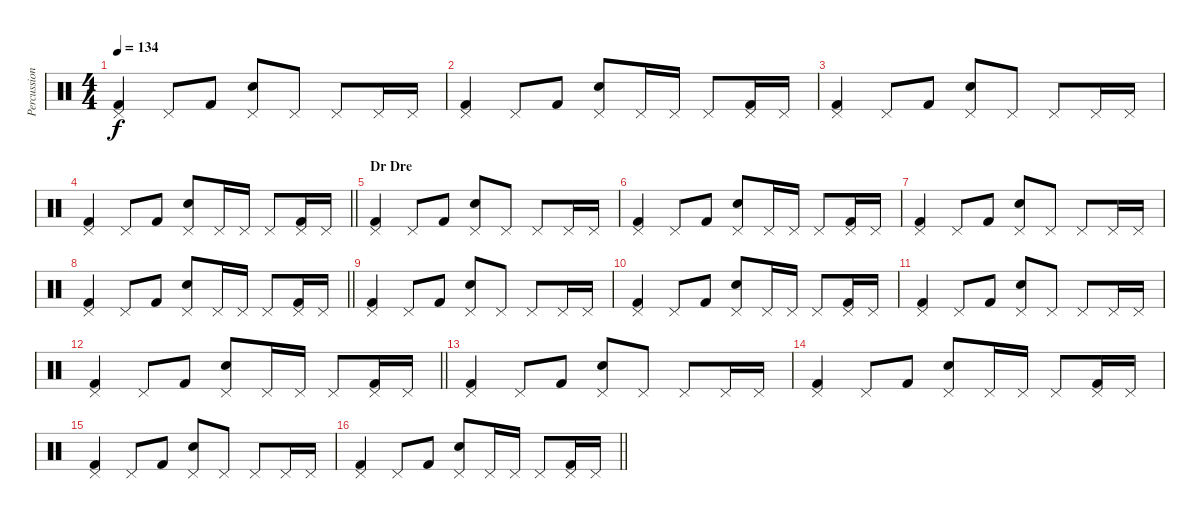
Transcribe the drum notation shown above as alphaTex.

\track ("Percussion" "Percussion") {instrument percussion}
\staff {score}
\articulation defaults
\ts (4 4)
\tempo 134
\clef neutral
\ks c
("Pedal Hi-Hat (hit)" "Kick (hit) 2").4{dy f} "Pedal Hi-Hat (hit)".8 "Kick (hit) 2".8 ("Pedal Hi-Hat (hit)" "Electric Snare (hit)").8 "Pedal Hi-Hat (hit)".8 "Pedal Hi-Hat (hit)".8 "Pedal Hi-Hat (hit)".16 "Pedal Hi-Hat (hit)".16 |
("Pedal Hi-Hat (hit)" "Kick (hit) 2").4 "Pedal Hi-Hat (hit)".8 "Kick (hit) 2".8 ("Pedal Hi-Hat (hit)" "Electric Snare (hit)").8 "Pedal Hi-Hat (hit)".16 "Pedal Hi-Hat (hit)".16 "Pedal Hi-Hat (hit)".8 ("Pedal Hi-Hat (hit)" "Kick (hit) 2").16 "Pedal Hi-Hat (hit)".16 |
("Pedal Hi-Hat (hit)" "Kick (hit) 2").4 "Pedal Hi-Hat (hit)".8 "Kick (hit) 2".8 ("Pedal Hi-Hat (hit)" "Electric Snare (hit)").8 "Pedal Hi-Hat (hit)".8 "Pedal Hi-Hat (hit)".8 "Pedal Hi-Hat (hit)".16 "Pedal Hi-Hat (hit)".16 |
\barLineRight lightlight
("Pedal Hi-Hat (hit)" "Kick (hit) 2").4 "Pedal Hi-Hat (hit)".8 "Kick (hit) 2".8 ("Pedal Hi-Hat (hit)" "Electric Snare (hit)").8 "Pedal Hi-Hat (hit)".16 "Pedal Hi-Hat (hit)".16 "Pedal Hi-Hat (hit)".8 ("Pedal Hi-Hat (hit)" "Kick (hit) 2").16 "Pedal Hi-Hat (hit)".16 |
\section ("" "Dr Dre")
("Pedal Hi-Hat (hit)" "Kick (hit) 2").4 "Pedal Hi-Hat (hit)".8 "Kick (hit) 2".8 ("Pedal Hi-Hat (hit)" "Electric Snare (hit)").8 "Pedal Hi-Hat (hit)".8 "Pedal Hi-Hat (hit)".8 "Pedal Hi-Hat (hit)".16 "Pedal Hi-Hat (hit)".16 |
("Pedal Hi-Hat (hit)" "Kick (hit) 2").4 "Pedal Hi-Hat (hit)".8 "Kick (hit) 2".8 ("Pedal Hi-Hat (hit)" "Electric Snare (hit)").8 "Pedal Hi-Hat (hit)".16 "Pedal Hi-Hat (hit)".16 "Pedal Hi-Hat (hit)".8 ("Pedal Hi-Hat (hit)" "Kick (hit) 2").16 "Pedal Hi-Hat (hit)".16 |
("Pedal Hi-Hat (hit)" "Kick (hit) 2").4 "Pedal Hi-Hat (hit)".8 "Kick (hit) 2".8 ("Pedal Hi-Hat (hit)" "Electric Snare (hit)").8 "Pedal Hi-Hat (hit)".8 "Pedal Hi-Hat (hit)".8 "Pedal Hi-Hat (hit)".16 "Pedal Hi-Hat (hit)".16 |
\barLineRight lightlight
("Pedal Hi-Hat (hit)" "Kick (hit) 2").4 "Pedal Hi-Hat (hit)".8 "Kick (hit) 2".8 ("Pedal Hi-Hat (hit)" "Electric Snare (hit)").8 "Pedal Hi-Hat (hit)".16 "Pedal Hi-Hat (hit)".16 "Pedal Hi-Hat (hit)".8 ("Pedal Hi-Hat (hit)" "Kick (hit) 2").16 "Pedal Hi-Hat (hit)".16 |
("Pedal Hi-Hat (hit)" "Kick (hit) 2").4 "Pedal Hi-Hat (hit)".8 "Kick (hit) 2".8 ("Pedal Hi-Hat (hit)" "Electric Snare (hit)").8 "Pedal Hi-Hat (hit)".8 "Pedal Hi-Hat (hit)".8 "Pedal Hi-Hat (hit)".16 "Pedal Hi-Hat (hit)".16 |
("Pedal Hi-Hat (hit)" "Kick (hit) 2").4 "Pedal Hi-Hat (hit)".8 "Kick (hit) 2".8 ("Pedal Hi-Hat (hit)" "Electric Snare (hit)").8 "Pedal Hi-Hat (hit)".16 "Pedal Hi-Hat (hit)".16 "Pedal Hi-Hat (hit)".8 ("Pedal Hi-Hat (hit)" "Kick (hit) 2").16 "Pedal Hi-Hat (hit)".16 |
("Pedal Hi-Hat (hit)" "Kick (hit) 2").4 "Pedal Hi-Hat (hit)".8 "Kick (hit) 2".8 ("Pedal Hi-Hat (hit)" "Electric Snare (hit)").8 "Pedal Hi-Hat (hit)".8 "Pedal Hi-Hat (hit)".8 "Pedal Hi-Hat (hit)".16 "Pedal Hi-Hat (hit)".16 |
\barLineRight lightlight
("Pedal Hi-Hat (hit)" "Kick (hit) 2").4 "Pedal Hi-Hat (hit)".8 "Kick (hit) 2".8 ("Pedal Hi-Hat (hit)" "Electric Snare (hit)").8 "Pedal Hi-Hat (hit)".16 "Pedal Hi-Hat (hit)".16 "Pedal Hi-Hat (hit)".8 ("Pedal Hi-Hat (hit)" "Kick (hit) 2").16 "Pedal Hi-Hat (hit)".16 |
("Pedal Hi-Hat (hit)" "Kick (hit) 2").4 "Pedal Hi-Hat (hit)".8 "Kick (hit) 2".8 ("Pedal Hi-Hat (hit)" "Electric Snare (hit)").8 "Pedal Hi-Hat (hit)".8 "Pedal Hi-Hat (hit)".8 "Pedal Hi-Hat (hit)".16 "Pedal Hi-Hat (hit)".16 |
("Pedal Hi-Hat (hit)" "Kick (hit) 2").4 "Pedal Hi-Hat (hit)".8 "Kick (hit) 2".8 ("Pedal Hi-Hat (hit)" "Electric Snare (hit)").8 "Pedal Hi-Hat (hit)".16 "Pedal Hi-Hat (hit)".16 "Pedal Hi-Hat (hit)".8 ("Pedal Hi-Hat (hit)" "Kick (hit) 2").16 "Pedal Hi-Hat (hit)".16 |
("Pedal Hi-Hat (hit)" "Kick (hit) 2").4 "Pedal Hi-Hat (hit)".8 "Kick (hit) 2".8 ("Pedal Hi-Hat (hit)" "Electric Snare (hit)").8 "Pedal Hi-Hat (hit)".8 "Pedal Hi-Hat (hit)".8 "Pedal Hi-Hat (hit)".16 "Pedal Hi-Hat (hit)".16 |
\barLineRight lightlight
("Pedal Hi-Hat (hit)" "Kick (hit) 2").4 "Pedal Hi-Hat (hit)".8 "Kick (hit) 2".8 ("Pedal Hi-Hat (hit)" "Electric Snare (hit)").8 "Pedal Hi-Hat (hit)".16 "Pedal Hi-Hat (hit)".16 "Pedal Hi-Hat (hit)".8 ("Pedal Hi-Hat (hit)" "Kick (hit) 2").16 "Pedal Hi-Hat (hit)".16
